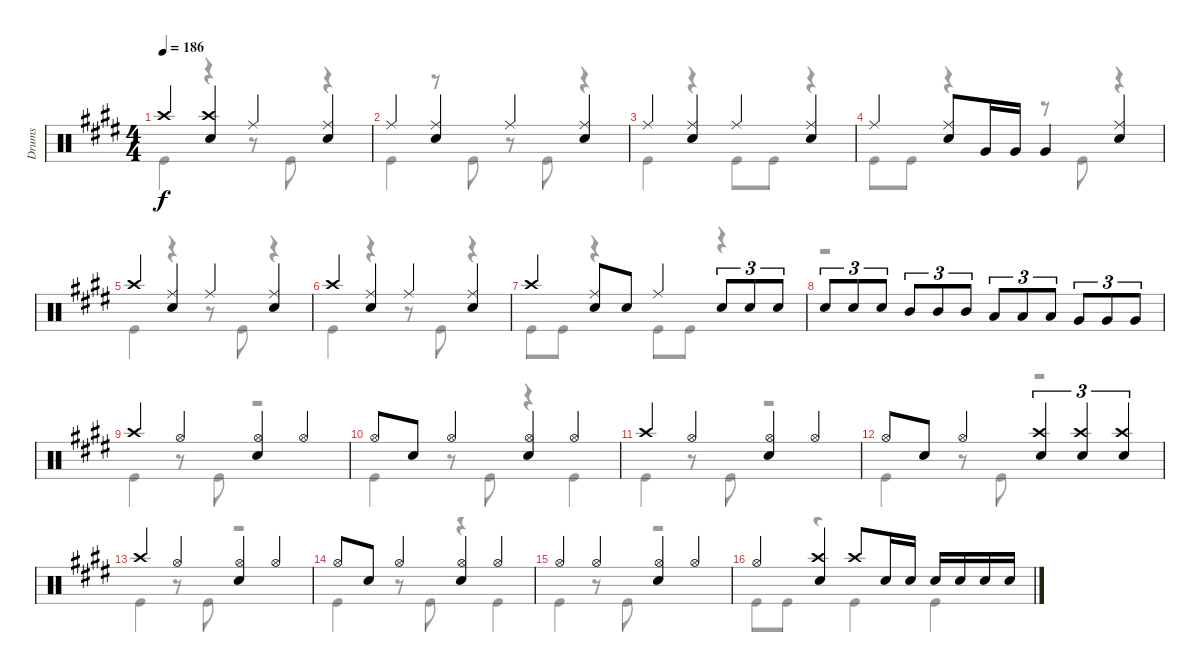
\track ("Drums" "Drums") {instrument percussion}
\staff {score}
\articulation defaults
\voice
\ts (4 4)
\tempo 186
\clef neutral
\ks e "Crash high (hit)".4{dy f beam Up}
("Crash high (hit)" "Snare (hit) 2").4{beam Up} "Ride (middle)".4{beam Up} ("Ride (middle)" "Snare (hit) 2").4{beam Up} |
"Ride (middle)".4{beam Up} ("Ride (middle)" "Snare (hit) 2").4{beam Up} "Ride (middle)".4{beam Up} ("Ride (middle)" "Snare (hit) 2").4{beam Up} |
"Ride (middle)".4{beam Up} ("Ride (middle)" "Snare (hit) 2").4{beam Up} "Ride (middle)".4{beam Up} ("Ride (middle)" "Snare (hit) 2").4{beam Up} |
"Ride (middle)".4{beam Up} ("Ride (middle)" "Snare (hit) 2").8{beam Up} "Very Low Tom (hit)".16{beam Up} "Very Low Tom (hit)".16{beam Up} "Very Low Tom (hit)".4{beam Up} ("Ride (middle)" "Snare (hit) 2").4{beam Up} |
"Crash high (hit)".4{beam Up} ("Ride (middle)" "Snare (hit) 2").4{beam Up} "Ride (middle)".4{beam Up} ("Ride (middle)" "Snare (hit) 2").4{beam Up} |
"Crash high (hit)".4{beam Up} ("Ride (middle)" "Snare (hit) 2").4{beam Up} "Ride (middle)".4{beam Up} ("Ride (middle)" "Snare (hit) 2").4{beam Up} |
"Crash high (hit)".4{beam Up} ("Ride (middle)" "Snare (hit) 2").8{beam Up} "Snare (hit) 2".8{beam Up} "Ride (middle)".4{beam Up} "Snare (hit) 2".8{tu (3 2) beam Up} "Snare (hit) 2".8{tu (3 2) beam Up} "Snare (hit) 2".8{tu (3 2) beam Up} |
"Snare (hit) 2".8{tu (3 2) beam Up} "Snare (hit) 2".8{tu (3 2) beam Up} "Snare (hit) 2".8{tu (3 2) beam Up} "Mid Tom (hit)".8{tu (3 2) beam Up} "Mid Tom (hit)".8{tu (3 2) beam Up} "Mid Tom (hit)".8{tu (3 2) beam Up} "Low Tom (hit)".8{tu (3 2) beam Up} "Low Tom (hit)".8{tu (3 2) beam Up} "Low Tom (hit)".8{tu (3 2) beam Up} "Very Low Tom (hit)".8{tu (3 2) beam Up} "Very Low Tom (hit)".8{tu (3 2) beam Up} "Very Low Tom (hit)".8{tu (3 2) beam Up} |
"Crash high (hit)".4{beam Up} "Hi-Hat (open)".4{beam Up} ("Hi-Hat (open)" "Snare (hit) 2").4{beam Up} "Hi-Hat (open)".4{beam Up} |
"Hi-Hat (open)".8{beam Up} "Snare (hit) 2".8{beam Up} "Hi-Hat (open)".4{beam Up} ("Hi-Hat (open)" "Snare (hit) 2").4{beam Up} "Hi-Hat (open)".4{beam Up} |
"Crash high (hit)".4{beam Up} "Hi-Hat (open)".4{beam Up} ("Hi-Hat (open)" "Snare (hit) 2").4{beam Up} "Hi-Hat (open)".4{beam Up} |
"Hi-Hat (open)".8{beam Up} "Snare (hit) 2".8{beam Up} "Hi-Hat (open)".4{beam Up} ("Crash high (hit)" "Snare (hit) 2").4{tu (3 2) beam Up} ("Snare (hit) 2" "Crash high (hit)").4{tu (3 2) beam Up} ("Crash high (hit)" "Snare (hit) 2").4{tu (3 2) beam Up} |
"Crash high (hit)".4{beam Up} "Hi-Hat (open)".4{beam Up} ("Hi-Hat (open)" "Snare (hit) 2").4{beam Up} "Hi-Hat (open)".4{beam Up} |
"Hi-Hat (open)".8{beam Up} "Snare (hit) 2".8{beam Up} "Hi-Hat (open)".4{beam Up} ("Hi-Hat (open)" "Snare (hit) 2").4{beam Up} "Hi-Hat (open)".4{beam Up} |
"Hi-Hat (open)".4{beam Up} "Hi-Hat (open)".4{beam Up} ("Hi-Hat (open)" "Snare (hit) 2").4{beam Up} "Hi-Hat (open)".4{beam Up} |
"Hi-Hat (open)".4{beam Up} ("Crash high (hit)" "Snare (hit) 2").4{beam Up} "Crash high (hit)".8{beam Up} "Snare (hit) 2".16{beam Up} "Snare (hit) 2".16{beam Up} "Snare (hit) 2".16{beam Up} "Snare (hit) 2".16{beam Up} "Snare (hit) 2".16{beam Up} "Snare (hit) 2".16{beam Up}
\voice
\clef neutral
\ottava regular
\simile none
\ks e "Kick (hit)".4{dy f}
r.4 r.8 "Kick (hit)".8 r.4 |
"Kick (hit)".4 r.8 "Kick (hit)".8 r.8 "Kick (hit)".8 r.4 |
"Kick (hit)".4 r.4 "Kick (hit)".8 "Kick (hit)".8 r.4 |
"Kick (hit)".8 "Kick (hit)".8 r.4 r.8 "Kick (hit)".8 r.4 |
"Kick (hit)".4 r.4 r.8 "Kick (hit)".8 r.4 |
"Kick (hit)".4 r.4 r.8 "Kick (hit)".8 r.4 |
"Kick (hit)".8 "Kick (hit)".8 r.4 "Kick (hit)".8 "Kick (hit)".8 r.4 |
r.1 |
"Kick (hit)".4 r.8 "Kick (hit)".8 r.2 |
"Kick (hit)".4 r.8 "Kick (hit)".8 r.4 "Kick (hit)".4 |
"Kick (hit)".4 r.8 "Kick (hit)".8 r.2 |
"Kick (hit)".4 r.8 "Kick (hit)".8 r.2 |
"Kick (hit)".4 r.8 "Kick (hit)".8 r.2 |
"Kick (hit)".4 r.8 "Kick (hit)".8 r.4 "Kick (hit)".4 |
"Kick (hit)".4 r.8 "Kick (hit)".8 r.2 |
"Kick (hit)".8 "Kick (hit)".8 r.4 "Kick (hit)".4 "Kick (hit)".4
